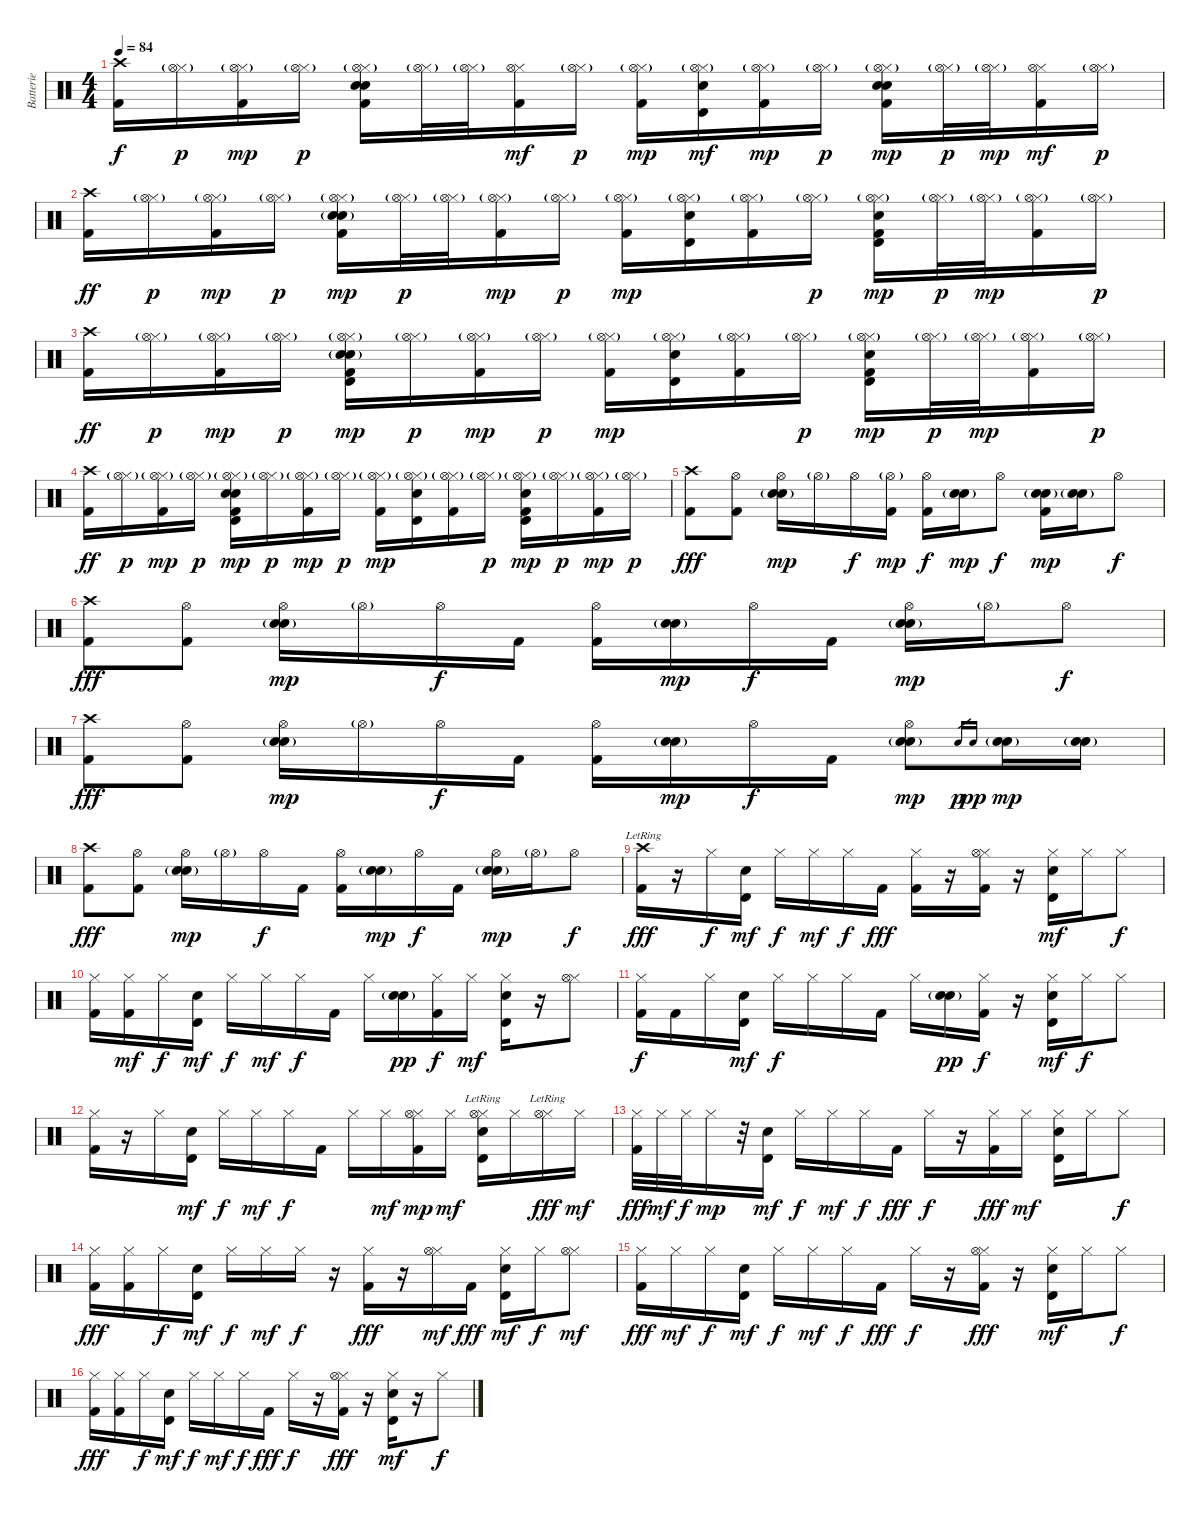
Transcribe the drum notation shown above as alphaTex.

\track ("Batterie" "Batterie") {instrument percussion}
\staff {score}
\articulation defaults
\ts (4 4)
\tempo 84
\clef neutral
\ks c
("Crash high (hit)" "Kick (hit) 2").16{dy f} ("Hi-Hat (closed)" "Hi-Hat (open)"{g}).16{dy p} ("Hi-Hat (closed)" "Hi-Hat (open)"{g} "Kick (hit) 2").16{dy mp} ("Hi-Hat (closed)" "Hi-Hat (open)"{g}).16{dy p} ("Hi-Hat (closed)" "Hi-Hat (open)"{g} "Electric Snare (hit)" "Snare (hit) 2" "Kick (hit) 2").16 ("Hi-Hat (closed)" "Hi-Hat (open)"{g}).32 ("Hi-Hat (closed)" "Hi-Hat (open)"{g}).32 ("Hi-Hat (closed)" "Hi-Hat (open)" "Kick (hit) 2").16{dy mf} ("Hi-Hat (closed)" "Hi-Hat (open)"{g}).16{dy p} ("Hi-Hat (closed)" "Hi-Hat (open)"{g} "Kick (hit) 2").16{dy mp} ("Hi-Hat (closed)" "Hi-Hat (open)"{g} "Electric Snare (hit)" "Timbale high (hit)").16{dy mf} ("Hi-Hat (closed)" "Hi-Hat (open)"{g} "Kick (hit) 2").16{dy mp} ("Hi-Hat (closed)" "Hi-Hat (open)"{g}).16{dy p} ("Hi-Hat (closed)" "Hi-Hat (open)"{g} "Electric Snare (hit)" "Snare (hit) 2" "Kick (hit) 2").16{dy mp} ("Hi-Hat (closed)" "Hi-Hat (open)"{g}).32{dy p} ("Hi-Hat (closed)" "Hi-Hat (open)"{g}).32{dy mp} ("Hi-Hat (closed)" "Hi-Hat (open)" "Kick (hit) 2").16{dy mf} ("Hi-Hat (closed)" "Hi-Hat (open)"{g}).16{dy p} |
("Crash high (hit)" "Kick (hit) 2").16{dy ff} ("Hi-Hat (closed)" "Hi-Hat (open)"{g}).16{dy p} ("Hi-Hat (closed)" "Hi-Hat (open)"{g} "Kick (hit) 2").16{dy mp} ("Hi-Hat (closed)" "Hi-Hat (open)"{g}).16{dy p} ("Hi-Hat (closed)" "Hi-Hat (open)"{g} "Electric Snare (hit)" "Snare (hit) 2"{g} "Kick (hit) 2").16{dy mp} ("Hi-Hat (closed)" "Hi-Hat (open)"{g}).32{dy p} ("Hi-Hat (closed)" "Hi-Hat (open)"{g}).32 ("Hi-Hat (closed)" "Hi-Hat (open)"{g} "Kick (hit) 2").16{dy mp} ("Hi-Hat (closed)" "Hi-Hat (open)"{g}).16{dy p} ("Hi-Hat (closed)" "Hi-Hat (open)"{g} "Kick (hit) 2").16{dy mp} ("Hi-Hat (closed)" "Hi-Hat (open)"{g} "Electric Snare (hit)" "Timbale high (hit)").16 ("Hi-Hat (closed)" "Hi-Hat (open)"{g} "Kick (hit) 2").16 ("Hi-Hat (closed)" "Hi-Hat (open)"{g}).16{dy p} ("Hi-Hat (closed)" "Hi-Hat (open)"{g} "Electric Snare (hit)" "Timbale high (hit)" "Kick (hit) 2").16{dy mp} ("Hi-Hat (closed)" "Hi-Hat (open)"{g}).32{dy p} ("Hi-Hat (closed)" "Hi-Hat (open)"{g}).32{dy mp} ("Hi-Hat (closed)" "Hi-Hat (open)"{g} "Kick (hit) 2").16 ("Hi-Hat (closed)" "Hi-Hat (open)"{g}).16{dy p} |
("Crash high (hit)" "Kick (hit) 2").16{dy ff} ("Hi-Hat (closed)" "Hi-Hat (open)"{g}).16{dy p} ("Hi-Hat (closed)" "Hi-Hat (open)"{g} "Kick (hit) 2").16{dy mp} ("Hi-Hat (closed)" "Hi-Hat (open)"{g}).16{dy p} ("Hi-Hat (closed)" "Hi-Hat (open)"{g} "Electric Snare (hit)" "Timbale high (hit)" "Snare (hit) 2"{g} "Kick (hit) 2").16{dy mp} ("Hi-Hat (closed)" "Hi-Hat (open)"{g}).16{dy p} ("Hi-Hat (closed)" "Hi-Hat (open)"{g} "Kick (hit) 2").16{dy mp} ("Hi-Hat (closed)" "Hi-Hat (open)"{g}).16{dy p} ("Hi-Hat (closed)" "Hi-Hat (open)"{g} "Kick (hit) 2").16{dy mp} ("Hi-Hat (closed)" "Hi-Hat (open)"{g} "Electric Snare (hit)" "Timbale high (hit)").16 ("Hi-Hat (closed)" "Hi-Hat (open)"{g} "Kick (hit) 2").16 ("Hi-Hat (closed)" "Hi-Hat (open)"{g}).16{dy p} ("Hi-Hat (closed)" "Hi-Hat (open)"{g} "Electric Snare (hit)" "Timbale high (hit)" "Kick (hit) 2").16{dy mp} ("Hi-Hat (closed)" "Hi-Hat (open)"{g}).32{dy p} ("Hi-Hat (closed)" "Hi-Hat (open)"{g}).32{dy mp} ("Hi-Hat (closed)" "Hi-Hat (open)"{g} "Kick (hit) 2").16 ("Hi-Hat (closed)" "Hi-Hat (open)"{g}).16{dy p} |
("Crash high (hit)" "Kick (hit) 2").16{dy ff} ("Hi-Hat (closed)" "Hi-Hat (open)"{g}).16{dy p} ("Hi-Hat (closed)" "Hi-Hat (open)"{g} "Kick (hit) 2").16{dy mp} ("Hi-Hat (closed)" "Hi-Hat (open)"{g}).16{dy p} ("Hi-Hat (closed)" "Hi-Hat (open)"{g} "Electric Snare (hit)" "Timbale high (hit)" "Snare (hit) 2" "Kick (hit) 2").16{dy mp} ("Hi-Hat (closed)" "Hi-Hat (open)"{g}).16{dy p} ("Hi-Hat (closed)" "Hi-Hat (open)"{g} "Kick (hit) 2").16{dy mp} ("Hi-Hat (closed)" "Hi-Hat (open)"{g}).16{dy p} ("Hi-Hat (closed)" "Hi-Hat (open)"{g} "Kick (hit) 2").16{dy mp} ("Hi-Hat (closed)" "Hi-Hat (open)"{g} "Electric Snare (hit)" "Timbale high (hit)").16 ("Hi-Hat (closed)" "Hi-Hat (open)"{g} "Kick (hit) 2").16 ("Hi-Hat (closed)" "Hi-Hat (open)"{g}).16{dy p} ("Hi-Hat (closed)" "Hi-Hat (open)"{g} "Electric Snare (hit)" "Timbale high (hit)" "Kick (hit) 2").16{dy mp} ("Hi-Hat (closed)" "Hi-Hat (open)"{g}).16{dy p} ("Hi-Hat (closed)" "Hi-Hat (open)"{g} "Kick (hit) 2").16{dy mp} ("Hi-Hat (closed)" "Hi-Hat (open)"{g}).16{dy p} |
("Crash high (hit)" "Kick (hit) 2").8{dy fff} ("Hi-Hat (open)" "Kick (hit) 2").8 ("Hi-Hat (open)" "Electric Snare (hit)" "Snare (hit) 2"{g}).16{dy mp} "Hi-Hat (open)"{g}.16 "Hi-Hat (open)".16{dy f} ("Hi-Hat (open)"{g} "Kick (hit) 2").16{dy mp} ("Hi-Hat (open)" "Kick (hit) 2").16{dy f} ("Electric Snare (hit)" "Snare (hit) 2"{g}).16{dy mp} "Hi-Hat (open)".8{dy f} ("Electric Snare (hit)" "Snare (hit) 2"{g} "Kick (hit) 2").16{dy mp} ("Electric Snare (hit)" "Snare (hit) 2"{g}).16 "Hi-Hat (open)".8{dy f} |
("Crash high (hit)" "Kick (hit) 2").8{dy fff} ("Hi-Hat (open)" "Kick (hit) 2").8 ("Hi-Hat (open)" "Electric Snare (hit)" "Snare (hit) 2"{g}).16{dy mp} "Hi-Hat (open)"{g}.16 "Hi-Hat (open)".16{dy f} "Kick (hit) 2".16 ("Hi-Hat (open)" "Kick (hit) 2").16 ("Electric Snare (hit)" "Snare (hit) 2"{g}).16{dy mp} "Hi-Hat (open)".16{dy f} "Kick (hit) 2".16 ("Hi-Hat (open)" "Electric Snare (hit)" "Snare (hit) 2"{g}).16{dy mp} "Hi-Hat (open)"{g}.16 "Hi-Hat (open)".8{dy f} |
("Crash high (hit)" "Kick (hit) 2").8{dy fff} ("Hi-Hat (open)" "Kick (hit) 2").8 ("Hi-Hat (open)" "Electric Snare (hit)" "Snare (hit) 2"{g}).16{dy mp} "Hi-Hat (open)"{g}.16 "Hi-Hat (open)".16{dy f} "Kick (hit) 2".16 ("Hi-Hat (open)" "Kick (hit) 2").16 ("Electric Snare (hit)" "Snare (hit) 2"{g}).16{dy mp} "Hi-Hat (open)".16{dy f} "Kick (hit) 2".16 ("Hi-Hat (open)" "Electric Snare (hit)" "Snare (hit) 2"{g}).8{dy mp} "Electric Snare (hit)".16{gr dy p} "Snare (hit) 2".16{gr dy pp} ("Electric Snare (hit)" "Snare (hit) 2"{g}).16{dy mp} ("Electric Snare (hit)" "Snare (hit) 2"{g}).16 |
("Crash high (hit)" "Kick (hit) 2").8{dy fff} ("Hi-Hat (open)" "Kick (hit) 2").8 ("Hi-Hat (open)" "Electric Snare (hit)" "Snare (hit) 2"{g}).16{dy mp} "Hi-Hat (open)"{g}.16 "Hi-Hat (open)".16{dy f} "Kick (hit) 2".16 ("Hi-Hat (open)" "Kick (hit) 2").16 ("Electric Snare (hit)" "Snare (hit) 2"{g}).16{dy mp} "Hi-Hat (open)".16{dy f} "Kick (hit) 2".16 ("Hi-Hat (open)" "Electric Snare (hit)" "Snare (hit) 2"{g}).16{dy mp} "Hi-Hat (open)"{g}.16 "Hi-Hat (open)".8{dy f} |
("Crash high (hit)"{lr} "Kick (hit) 2").16{dy fff} r.16 "Hi-Hat (closed)".16{dy f} ("Electric Snare (hit)" "Timbale high (hit)").16{dy mf} "Hi-Hat (closed)".16{dy f} "Hi-Hat (closed)".16{dy mf} "Hi-Hat (closed)".16{dy f} "Kick (hit) 2".16{dy fff} ("Hi-Hat (closed)" "Kick (hit) 2").16 r.16 ("Hi-Hat (closed)" "Hi-Hat (open)" "Kick (hit) 2").16 r.16 ("Hi-Hat (closed)" "Electric Snare (hit)" "Timbale high (hit)").16{dy mf} "Hi-Hat (closed)".16 "Hi-Hat (closed)".8{dy f} |
("Hi-Hat (closed)" "Kick (hit) 2").16 ("Hi-Hat (closed)" "Kick (hit) 2").16{dy mf} "Hi-Hat (closed)".16{dy f} ("Electric Snare (hit)" "Timbale high (hit)").16{dy mf} "Hi-Hat (closed)".16{dy f} "Hi-Hat (closed)".16{dy mf} "Hi-Hat (closed)".16{dy f} "Kick (hit) 2".16 "Hi-Hat (closed)".16 ("Electric Snare (hit)"{g} "Snare (hit) 2"{g}).16{dy pp} ("Hi-Hat (closed)" "Kick (hit) 2").16{dy f} "Hi-Hat (closed)".16{dy mf} ("Hi-Hat (closed)" "Electric Snare (hit)" "Timbale high (hit)").16 r.16 ("Hi-Hat (closed)" "Hi-Hat (open)").8 |
("Hi-Hat (closed)" "Kick (hit) 2").16{dy f} "Kick (hit) 2".16 "Hi-Hat (closed)".16 ("Electric Snare (hit)" "Timbale high (hit)").16{dy mf} "Hi-Hat (closed)".16{dy f} "Hi-Hat (closed)".16 "Hi-Hat (closed)".16 "Kick (hit) 2".16 "Hi-Hat (closed)".16 ("Electric Snare (hit)"{g} "Snare (hit) 2"{g}).16{dy pp} ("Hi-Hat (closed)" "Kick (hit) 2").16{dy f} r.16 ("Hi-Hat (closed)" "Electric Snare (hit)" "Timbale high (hit)").16{dy mf} "Hi-Hat (closed)".16{dy f} "Hi-Hat (closed)".8 |
("Hi-Hat (closed)" "Kick (hit) 2").16 r.16 "Hi-Hat (closed)".16 ("Electric Snare (hit)" "Timbale high (hit)").16{dy mf} "Hi-Hat (closed)".16{dy f} "Hi-Hat (closed)".16{dy mf} "Hi-Hat (closed)".16{dy f} "Kick (hit) 2".16 "Hi-Hat (closed)".16 "Hi-Hat (closed)".16{dy mf} ("Hi-Hat (closed)" "Hi-Hat (open)" "Kick (hit) 2").16{dy mp} "Hi-Hat (closed)".16{dy mf} ("Hi-Hat (closed)" "Hi-Hat (open)"{lr} "Electric Snare (hit)" "Timbale high (hit)").16 "Hi-Hat (closed)".16 ("Hi-Hat (closed)" "Hi-Hat (open)"{lr}).16{dy fff} "Hi-Hat (closed)".16{dy mf} |
("Hi-Hat (closed)" "Kick (hit) 2").32{dy fff} "Hi-Hat (closed)".32{dy mf} "Hi-Hat (closed)".32{dy f} "Hi-Hat (closed)".16{dy mp} r.32 ("Electric Snare (hit)" "Timbale high (hit)").16{dy mf} "Hi-Hat (closed)".16{dy f} "Hi-Hat (closed)".16{dy mf} "Hi-Hat (closed)".16{dy f} "Kick (hit) 2".16{dy fff} "Hi-Hat (closed)".16{dy f} r.16 ("Hi-Hat (closed)" "Kick (hit) 2").16{dy fff} "Hi-Hat (closed)".16{dy mf} ("Hi-Hat (closed)" "Electric Snare (hit)" "Timbale high (hit)").16 "Hi-Hat (closed)".16 "Hi-Hat (closed)".8{dy f} |
("Hi-Hat (closed)" "Kick (hit) 2").16{dy fff} ("Hi-Hat (closed)" "Kick (hit) 2").16 "Hi-Hat (closed)".16{dy f} ("Electric Snare (hit)" "Timbale high (hit)").16{dy mf} "Hi-Hat (closed)".16{dy f} "Hi-Hat (closed)".16{dy mf} "Hi-Hat (closed)".16{dy f} r.16 ("Hi-Hat (closed)" "Kick (hit) 2").16{dy fff} r.16 ("Hi-Hat (closed)" "Hi-Hat (open)").16{dy mf} "Kick (hit) 2".16{dy fff} ("Hi-Hat (closed)" "Electric Snare (hit)" "Timbale high (hit)").16{dy mf} "Hi-Hat (closed)".16{dy f} ("Hi-Hat (closed)" "Hi-Hat (open)").8{dy mf} |
("Hi-Hat (closed)" "Kick (hit) 2").16{dy fff} "Hi-Hat (closed)".16{dy mf} "Hi-Hat (closed)".16{dy f} ("Electric Snare (hit)" "Timbale high (hit)").16{dy mf} "Hi-Hat (closed)".16{dy f} "Hi-Hat (closed)".16{dy mf} "Hi-Hat (closed)".16{dy f} "Kick (hit) 2".16{dy fff} "Hi-Hat (closed)".16{dy f} r.16 ("Hi-Hat (closed)" "Hi-Hat (open)" "Kick (hit) 2").16{dy fff} r.16 ("Hi-Hat (closed)" "Electric Snare (hit)" "Timbale high (hit)").16{dy mf} "Hi-Hat (closed)".16 "Hi-Hat (closed)".8{dy f} |
("Hi-Hat (closed)" "Kick (hit) 2").16{dy fff} ("Hi-Hat (closed)" "Kick (hit) 2").16 "Hi-Hat (closed)".16{dy f} ("Electric Snare (hit)" "Timbale high (hit)").16{dy mf} "Hi-Hat (closed)".16{dy f} "Hi-Hat (closed)".16{dy mf} "Hi-Hat (closed)".16{dy f} "Kick (hit) 2".16{dy fff} "Hi-Hat (closed)".16{dy f} r.16 ("Hi-Hat (closed)" "Hi-Hat (open)" "Kick (hit) 2").16{dy fff} r.16 ("Hi-Hat (closed)" "Electric Snare (hit)" "Timbale high (hit)").16{dy mf} r.16 "Hi-Hat (closed)".8{dy f}
